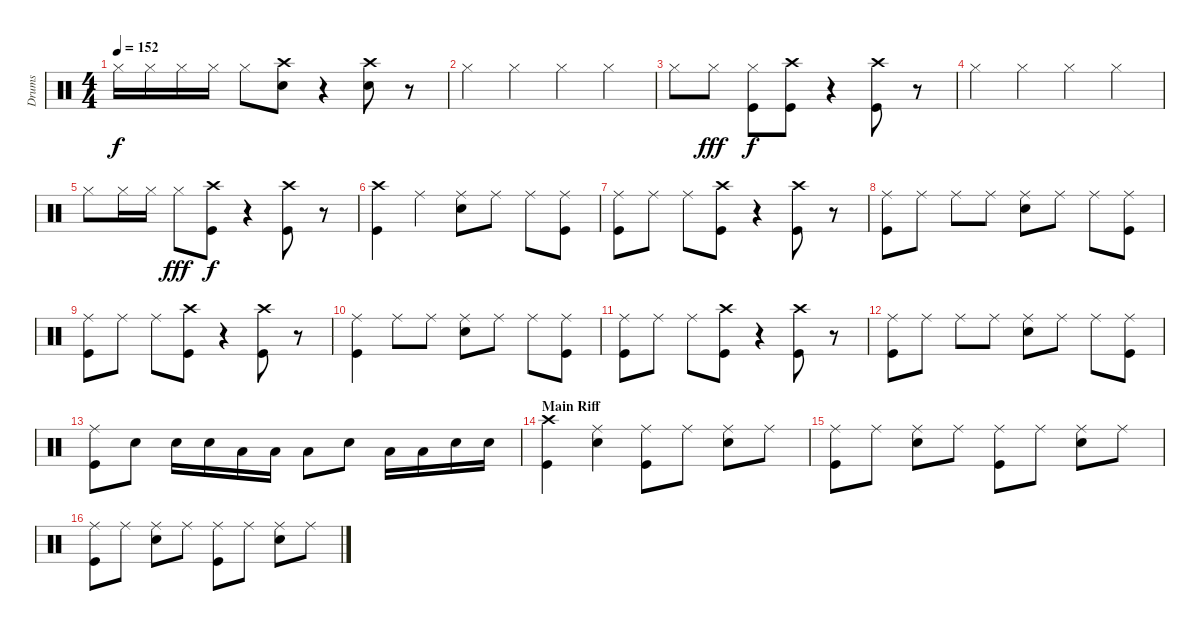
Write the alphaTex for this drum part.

\track ("Drums" "Drums") {instrument percussion}
\staff {score}
\articulation defaults
\ts (4 4)
\tempo 152
\clef neutral
\ks c "Hi-Hat (closed)".16{dy f} "Hi-Hat (closed)".16 "Hi-Hat (closed)".16 "Hi-Hat (closed)".16 "Hi-Hat (closed)".8
("Crash high (hit)" "Snare (hit) 2").8 r.4 ("Crash high (hit)" "Snare (hit) 2").8 r.8 |
"Hi-Hat (closed)".4 "Hi-Hat (closed)".4 "Hi-Hat (closed)".4 "Hi-Hat (closed)".4 |
"Hi-Hat (closed)".8 "Hi-Hat (closed)".8{dy fff} ("Hi-Hat (closed)" "Kick (hit)").8{dy f} ("Crash high (hit)" "Kick (hit)").8 r.4 ("Crash high (hit)" "Kick (hit)").8 r.8 |
"Hi-Hat (closed)".4 "Hi-Hat (closed)".4 "Hi-Hat (closed)".4 "Hi-Hat (closed)".4 |
"Hi-Hat (closed)".8 "Hi-Hat (closed)".16 "Hi-Hat (closed)".16 "Hi-Hat (closed)".8{dy fff} ("Crash high (hit)" "Kick (hit)").8{dy f} r.4 ("Crash high (hit)" "Kick (hit)").8 r.8 |
("Crash high (hit)" "Kick (hit)").4 "Ride (middle)".4 ("Ride (middle)" "Snare (hit) 2").8 "Ride (middle)".8 "Ride (middle)".8 ("Ride (middle)" "Kick (hit)").8 |
("Ride (middle)" "Kick (hit)").8 "Ride (middle)".8 "Ride (middle)".8 ("Crash high (hit)" "Kick (hit)").8 r.4 ("Crash high (hit)" "Kick (hit)").8 r.8 |
("Ride (middle)" "Kick (hit)").8 "Ride (middle)".8 "Ride (middle)".8 "Ride (middle)".8 ("Ride (middle)" "Snare (hit) 2").8 "Ride (middle)".8 "Ride (middle)".8 ("Ride (middle)" "Kick (hit)").8 |
("Ride (middle)" "Kick (hit)").8 "Ride (middle)".8 "Ride (middle)".8 ("Crash high (hit)" "Kick (hit)").8 r.4 ("Crash high (hit)" "Kick (hit)").8 r.8 |
("Ride (middle)" "Kick (hit)").4 "Ride (middle)".8 "Ride (middle)".8 ("Ride (middle)" "Snare (hit) 2").8 "Ride (middle)".8 "Ride (middle)".8 ("Ride (middle)" "Kick (hit)").8 |
("Ride (middle)" "Kick (hit)").8 "Ride (middle)".8 "Ride (middle)".8 ("Crash high (hit)" "Kick (hit)").8 r.4 ("Crash high (hit)" "Kick (hit)").8 r.8 |
("Ride (middle)" "Kick (hit)").8 "Ride (middle)".8 "Ride (middle)".8 "Ride (middle)".8 ("Ride (middle)" "Snare (hit) 2").8 "Ride (middle)".8 "Ride (middle)".8 ("Ride (middle)" "Kick (hit)").8 |
("Ride (middle)" "Kick (hit)").8 "Snare (hit) 2".8 "Snare (hit) 2".16 "Snare (hit) 2".16 "Low Tom (hit)".16 "Low Tom (hit)".16 "Low Tom (hit)".8 "Snare (hit) 2".8 "Low Tom (hit)".16 "Low Tom (hit)".16 "Snare (hit) 2".16 "Snare (hit) 2".16 |
\section ("" "Main Riff")
("Crash high (hit)" "Kick (hit)").4 ("Ride (middle)" "Snare (hit) 2").4 ("Ride (middle)" "Kick (hit)").8 "Ride (middle)".8 ("Ride (middle)" "Snare (hit) 2").8 "Ride (middle)".8 |
("Ride (middle)" "Kick (hit)").8 "Ride (middle)".8 ("Ride (middle)" "Snare (hit) 2").8 "Ride (middle)".8 ("Ride (middle)" "Kick (hit)").8 "Ride (middle)".8 ("Ride (middle)" "Snare (hit) 2").8 "Ride (middle)".8 |
("Ride (middle)" "Kick (hit)").8 "Ride (middle)".8 ("Ride (middle)" "Snare (hit) 2").8 "Ride (middle)".8 ("Ride (middle)" "Kick (hit)").8 "Ride (middle)".8 ("Ride (middle)" "Snare (hit) 2").8 "Ride (middle)".8
